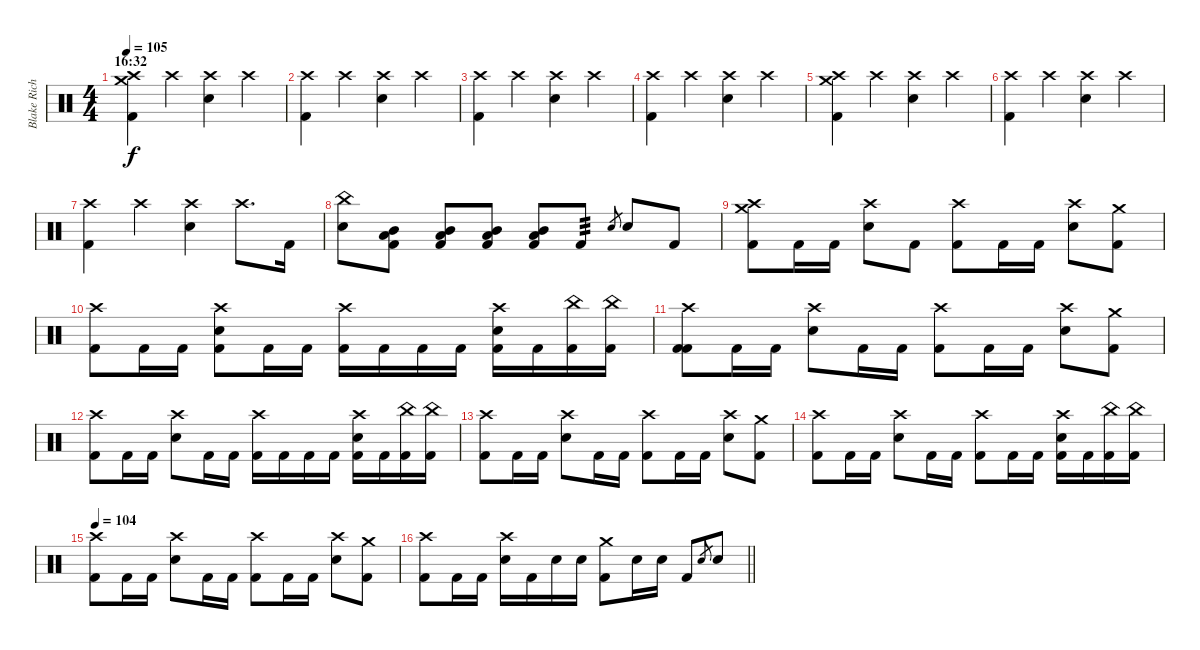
\track ("Blake Richardson" "Blake Rich") {instrument percussion}
\staff {score}
\articulation defaults
\ts (4 4)
\section ("" "16:32")
\tempo 105
\clef neutral
\ks c
("Crash high (hit)" "Crash medium (hit)" "Kick (hit) 2").4{dy f} "Crash high (hit)".4 ("Crash high (hit)" "Electric Snare (hit)").4 "Crash high (hit)".4 |
("Crash high (hit)" "Kick (hit) 2").4 "Crash high (hit)".4 ("Crash high (hit)" "Electric Snare (hit)").4 "Crash high (hit)".4 |
("Crash high (hit)" "Kick (hit) 2").4 "Crash high (hit)".4 ("Crash high (hit)" "Electric Snare (hit)").4 "Crash high (hit)".4 |
("Crash high (hit)" "Kick (hit) 2").4 "Crash high (hit)".4 ("Crash high (hit)" "Electric Snare (hit)").4 "Crash high (hit)".4 |
("Crash high (hit)" "Crash medium (hit)" "Kick (hit) 2").4 "Crash high (hit)".4 ("Crash high (hit)" "Electric Snare (hit)").4 "Crash high (hit)".4 |
("Crash high (hit)" "Kick (hit) 2").4 "Crash high (hit)".4 ("Crash high (hit)" "Electric Snare (hit)").4 "Crash high (hit)".4 |
("Crash high (hit)" "Kick (hit) 2").4 "Crash high (hit)".4 ("Crash high (hit)" "Electric Snare (hit)").4 "Crash high (hit)".8{d} "Kick (hit) 2".16 |
("China (hit)" "Electric Snare (hit)").8 ("Mid Tom (hit)" "Low Floor Tom (hit)" "Kick (hit) 2").8 ("Mid Tom (hit)" "Low Floor Tom (hit)" "Kick (hit) 2").8 ("Mid Tom (hit)" "Low Floor Tom (hit)" "Kick (hit) 2").8 ("Mid Tom (hit)" "Low Floor Tom (hit)" "Kick (hit) 2").8 "Kick (hit) 2".8{tp 3} "Electric Snare (hit)".8{gr} "Electric Snare (hit)".8 "Kick (hit) 2".8 |
("Crash high (hit)" "Crash medium (hit)" "Kick (hit) 2").8 "Kick (hit) 2".16 "Kick (hit) 2".16 ("Crash high (hit)" "Electric Snare (hit)").8 "Kick (hit) 2".8 ("Crash high (hit)" "Kick (hit) 2").8 "Kick (hit) 2".16 "Kick (hit) 2".16 ("Crash high (hit)" "Electric Snare (hit)").8 ("Crash medium (hit)" "Kick (hit) 2").8 |
("Crash high (hit)" "Kick (hit) 2").8 "Kick (hit) 2".16 "Kick (hit) 2".16 ("Crash high (hit)" "Electric Snare (hit)" "Kick (hit) 2").8 "Kick (hit) 2".16 "Kick (hit) 2".16 ("Crash high (hit)" "Kick (hit) 2").16 "Kick (hit) 2".16 "Kick (hit) 2".16 "Kick (hit) 2".16 ("Crash high (hit)" "Electric Snare (hit)" "Kick (hit) 2").16 "Kick (hit) 2".16 ("China (hit)" "Kick (hit) 2").16 ("China (hit)" "Kick (hit) 2").16 |
("Crash high (hit)" "Kick (hit) 2" "Kick (hit) 2").8 "Kick (hit) 2".16 "Kick (hit) 2".16 ("Crash high (hit)" "Electric Snare (hit)").8 "Kick (hit) 2".16 "Kick (hit) 2".16 ("Crash high (hit)" "Kick (hit) 2").8 "Kick (hit) 2".16 "Kick (hit) 2".16 ("Crash high (hit)" "Electric Snare (hit)").8 ("Crash medium (hit)" "Kick (hit) 2").8 |
("Crash high (hit)" "Kick (hit) 2").8 "Kick (hit) 2".16 "Kick (hit) 2".16 ("Crash high (hit)" "Electric Snare (hit)").8 "Kick (hit) 2".16 "Kick (hit) 2".16 ("Crash high (hit)" "Kick (hit) 2").16 "Kick (hit) 2".16 "Kick (hit) 2".16 "Kick (hit) 2".16 ("Crash high (hit)" "Electric Snare (hit)" "Kick (hit) 2").16 "Kick (hit) 2".16 ("China (hit)" "Kick (hit) 2").16 ("China (hit)" "Kick (hit) 2").16 |
("Crash high (hit)" "Kick (hit) 2").8 "Kick (hit) 2".16 "Kick (hit) 2".16 ("Crash high (hit)" "Electric Snare (hit)").8 "Kick (hit) 2".16 "Kick (hit) 2".16 ("Crash high (hit)" "Kick (hit) 2").8 "Kick (hit) 2".16 "Kick (hit) 2".16 ("Crash high (hit)" "Electric Snare (hit)").8 ("Crash medium (hit)" "Kick (hit) 2").8 |
("Crash high (hit)" "Kick (hit) 2").8 "Kick (hit) 2".16 "Kick (hit) 2".16 ("Crash high (hit)" "Electric Snare (hit)").8 "Kick (hit) 2".16 "Kick (hit) 2".16 ("Crash high (hit)" "Kick (hit) 2").8 "Kick (hit) 2".16 "Kick (hit) 2".16 ("Crash high (hit)" "Electric Snare (hit)" "Kick (hit) 2").16 "Kick (hit) 2".16 ("China (hit)" "Kick (hit) 2").16 ("China (hit)" "Kick (hit) 2").16 |
\tempo 104
("Crash high (hit)" "Kick (hit) 2").8 "Kick (hit) 2".16 "Kick (hit) 2".16 ("Crash high (hit)" "Electric Snare (hit)").8 "Kick (hit) 2".16 "Kick (hit) 2".16 ("Crash high (hit)" "Kick (hit) 2").8 "Kick (hit) 2".16 "Kick (hit) 2".16 ("Crash high (hit)" "Electric Snare (hit)").8 ("Crash medium (hit)" "Kick (hit) 2").8 |
\barLineRight lightlight
("Crash high (hit)" "Kick (hit) 2").8 "Kick (hit) 2".16 "Kick (hit) 2".16 ("Crash high (hit)" "Electric Snare (hit)").16 "Kick (hit) 2".16 "Electric Snare (hit)".16 "Electric Snare (hit)".16 ("Crash medium (hit)" "Kick (hit) 2").8 "Electric Snare (hit)".16 "Electric Snare (hit)".16 "Kick (hit) 2".8 "Electric Snare (hit)".8{gr} "Electric Snare (hit)".8
